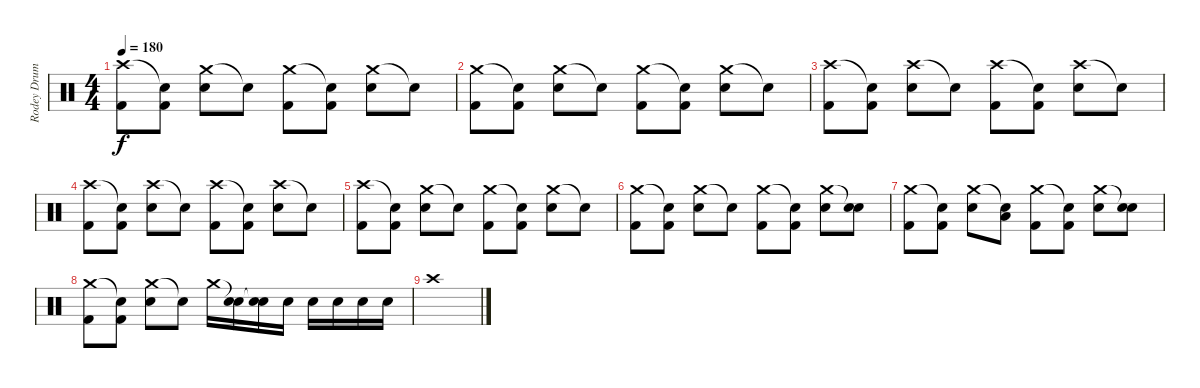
\track ("Rodey Drums" "Rodey Drum") {instrument percussion}
\staff {score}
\articulation defaults
\ts (4 4)
\tempo 180
\clef neutral
\ks c
("Crash high (hit)" "Kick (hit) 2").8{dy f} ("Snare (hit)"{t} "Kick (hit) 2").8 ("Crash medium (hit)" "Electric Snare (hit)").8 "Snare (hit)"{t}.8 ("Crash medium (hit)" "Kick (hit) 2").8 ("Snare (hit)"{t} "Kick (hit) 2").8 ("Crash medium (hit)" "Electric Snare (hit)").8 "Snare (hit)"{t}.8 |
("Crash medium (hit)" "Kick (hit) 2").8 ("Snare (hit)"{t} "Kick (hit) 2").8 ("Crash medium (hit)" "Electric Snare (hit)").8 "Snare (hit)"{t}.8 ("Crash medium (hit)" "Kick (hit) 2").8 ("Snare (hit)"{t} "Kick (hit) 2").8 ("Crash medium (hit)" "Electric Snare (hit)").8 "Snare (hit)"{t}.8 |
("Crash high (hit)" "Kick (hit) 2").8 ("Snare (hit)"{t} "Kick (hit) 2").8 ("Crash high (hit)" "Electric Snare (hit)").8 "Snare (hit)"{t}.8 ("Crash high (hit)" "Kick (hit) 2").8 ("Snare (hit)"{t} "Kick (hit) 2").8 ("Crash high (hit)" "Electric Snare (hit)").8 "Snare (hit)"{t}.8 |
("Crash high (hit)" "Kick (hit) 2").8 ("Snare (hit)"{t} "Kick (hit) 2").8 ("Crash high (hit)" "Electric Snare (hit)").8 "Snare (hit)"{t}.8 ("Crash high (hit)" "Kick (hit) 2").8 ("Snare (hit)"{t} "Kick (hit) 2").8 ("Crash high (hit)" "Electric Snare (hit)").8 "Snare (hit)"{t}.8 |
("Crash high (hit)" "Kick (hit) 2").8 ("Snare (hit)"{t} "Kick (hit) 2").8 ("Crash medium (hit)" "Electric Snare (hit)").8 "Snare (hit)"{t}.8 ("Crash medium (hit)" "Kick (hit) 2").8 ("Snare (hit)"{t} "Kick (hit) 2").8 ("Crash medium (hit)" "Electric Snare (hit)").8 "Snare (hit)"{t}.8 |
("Crash medium (hit)" "Kick (hit) 2").8 ("Snare (hit)"{t} "Kick (hit) 2").8 ("Crash medium (hit)" "Electric Snare (hit)").8 "Snare (hit)"{t}.8 ("Crash medium (hit)" "Kick (hit) 2").8 ("Snare (hit)"{t} "Kick (hit) 2").8 ("Crash medium (hit)" "Electric Snare (hit)").8 ("Snare (hit)"{t} "Electric Snare (hit)").8 |
("Crash medium (hit)" "Kick (hit) 2").8 ("Snare (hit)"{t} "Kick (hit) 2").8 ("Crash medium (hit)" "Electric Snare (hit)").8 ("Snare (hit)"{t} "Low Floor Tom (hit)").8 ("Crash medium (hit)" "Kick (hit) 2").8 ("Snare (hit)"{t} "Kick (hit) 2").8 ("Crash medium (hit)" "Electric Snare (hit)").8 ("Snare (hit)"{t} "Electric Snare (hit)").8 |
("Crash medium (hit)" "Kick (hit) 2").8 ("Snare (hit)"{t} "Kick (hit) 2").8 ("Crash medium (hit)" "Electric Snare (hit)").8 "Snare (hit)"{t}.8 "Crash medium (hit)".16 ("Snare (hit)"{t} "Electric Snare (hit)").16 ("Snare (hit)"{t} "Electric Snare (hit)").16 "Electric Snare (hit)".16 "Electric Snare (hit)".16 "Electric Snare (hit)".16 "Electric Snare (hit)".16 "Electric Snare (hit)".16 |
"Crash high (hit)".1
